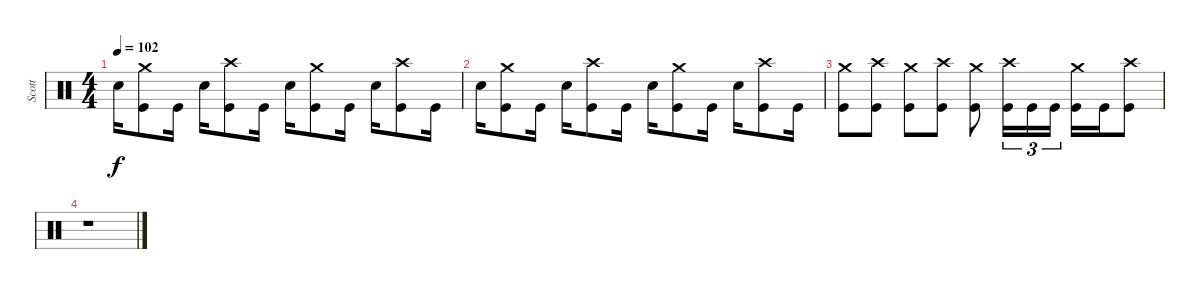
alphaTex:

\track ("Scott" "Scott") {instrument percussion}
\staff {score}
\articulation defaults
\ts (4 4)
\tempo 102
\clef neutral
\ks c "Snare (hit) 2".16{dy f}
("Kick (hit)" "Crash medium (hit)").8 "Kick (hit)".16 "Snare (hit) 2".16 ("Kick (hit)" "Crash high (hit)").8 "Kick (hit)".16 "Snare (hit) 2".16 ("Kick (hit)" "Crash medium (hit)").8 "Kick (hit)".16 "Snare (hit) 2".16 ("Kick (hit)" "Crash high (hit)").8 "Kick (hit)".16 |
"Snare (hit) 2".16 ("Kick (hit)" "Crash medium (hit)").8 "Kick (hit)".16 "Snare (hit) 2".16 ("Kick (hit)" "Crash high (hit)").8 "Kick (hit)".16 "Snare (hit) 2".16 ("Kick (hit)" "Crash medium (hit)").8 "Kick (hit)".16 "Snare (hit) 2".16 ("Kick (hit)" "Crash high (hit)").8 "Kick (hit)".16 |
("Kick (hit)" "Crash medium (hit)").8 ("Kick (hit)" "Crash high (hit)").8 ("Kick (hit)" "Crash medium (hit)").8 ("Kick (hit)" "Crash high (hit)").8 ("Kick (hit)" "Crash medium (hit)").8 ("Kick (hit)" "Crash high (hit)").16{tu (3 2)} "Kick (hit)".16{tu (3 2)} "Kick (hit)".16{tu (3 2)} ("Kick (hit)" "Crash medium (hit)").16 "Kick (hit)".16 ("Kick (hit)" "Crash high (hit)").8 |
r.1
